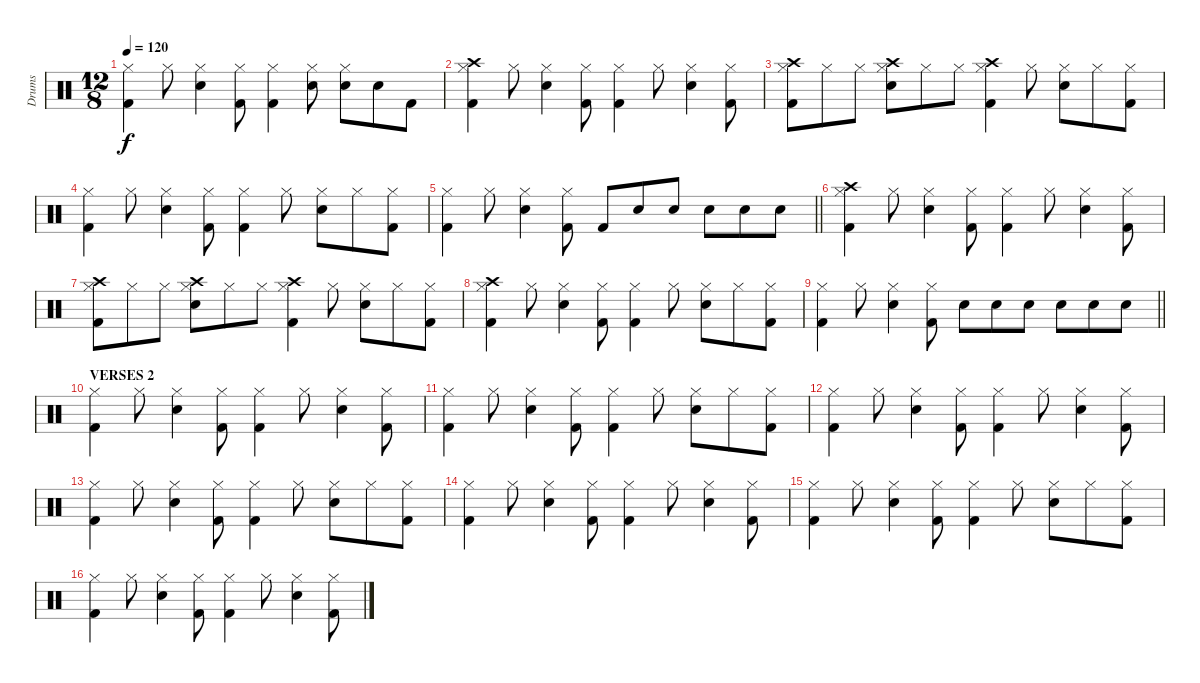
\track ("Drums" "Drums") {instrument percussion}
\staff {score}
\articulation defaults
\ts (12 8)
\tempo 120
\clef neutral
\ks c
("Hi-Hat (closed)" "Kick (hit) 2").4{dy f} "Hi-Hat (closed)".8 ("Hi-Hat (closed)" "Electric Snare (hit)").4 ("Hi-Hat (closed)" "Kick (hit) 2").8 ("Hi-Hat (closed)" "Kick (hit) 2").4 ("Hi-Hat (closed)" "Electric Snare (hit)").8 ("Hi-Hat (closed)" "Electric Snare (hit)").8 "Electric Snare (hit)".8 "Kick (hit) 2".8 |
("Crash high (hit)" "Hi-Hat (closed)" "Kick (hit) 2").4 "Hi-Hat (closed)".8 ("Hi-Hat (closed)" "Electric Snare (hit)").4 ("Hi-Hat (closed)" "Kick (hit) 2").8 ("Hi-Hat (closed)" "Kick (hit) 2").4 "Hi-Hat (closed)".8 ("Hi-Hat (closed)" "Electric Snare (hit)").4 ("Hi-Hat (closed)" "Kick (hit) 2").8 |
("Crash high (hit)" "Hi-Hat (closed)" "Kick (hit) 2").8 "Hi-Hat (closed)".8 "Hi-Hat (closed)".8 ("Crash high (hit)" "Hi-Hat (closed)" "Electric Snare (hit)").8 "Hi-Hat (closed)".8 "Hi-Hat (closed)".8 ("Crash high (hit)" "Hi-Hat (closed)" "Kick (hit) 2").4 "Hi-Hat (closed)".8 ("Hi-Hat (closed)" "Electric Snare (hit)").8 "Hi-Hat (closed)".8 ("Hi-Hat (closed)" "Kick (hit) 2").8 |
("Hi-Hat (closed)" "Kick (hit) 2").4 "Hi-Hat (closed)".8 ("Hi-Hat (closed)" "Electric Snare (hit)").4 ("Hi-Hat (closed)" "Kick (hit) 2").8 ("Hi-Hat (closed)" "Kick (hit) 2").4 "Hi-Hat (closed)".8 ("Hi-Hat (closed)" "Electric Snare (hit)").8 "Hi-Hat (closed)".8 ("Hi-Hat (closed)" "Kick (hit) 2").8 |
\barLineRight lightlight
("Hi-Hat (closed)" "Kick (hit) 2").4 "Hi-Hat (closed)".8 ("Hi-Hat (closed)" "Electric Snare (hit)").4 ("Hi-Hat (closed)" "Kick (hit) 2").8 "Kick (hit) 2".8 "Electric Snare (hit)".8 "Electric Snare (hit)".8 "Electric Snare (hit)".8 "Electric Snare (hit)".8 "Electric Snare (hit)".8 |
("Crash high (hit)" "Hi-Hat (closed)" "Kick (hit) 2").4 "Hi-Hat (closed)".8 ("Hi-Hat (closed)" "Electric Snare (hit)").4 ("Hi-Hat (closed)" "Kick (hit) 2").8 ("Hi-Hat (closed)" "Kick (hit) 2").4 "Hi-Hat (closed)".8 ("Hi-Hat (closed)" "Electric Snare (hit)").4 ("Hi-Hat (closed)" "Kick (hit) 2").8 |
("Crash high (hit)" "Hi-Hat (closed)" "Kick (hit) 2").8 "Hi-Hat (closed)".8 "Hi-Hat (closed)".8 ("Crash high (hit)" "Hi-Hat (closed)" "Electric Snare (hit)").8 "Hi-Hat (closed)".8 "Hi-Hat (closed)".8 ("Crash high (hit)" "Hi-Hat (closed)" "Kick (hit) 2").4 "Hi-Hat (closed)".8 ("Hi-Hat (closed)" "Electric Snare (hit)").8 "Hi-Hat (closed)".8 ("Hi-Hat (closed)" "Kick (hit) 2").8 |
("Crash high (hit)" "Hi-Hat (closed)" "Kick (hit) 2").4 "Hi-Hat (closed)".8 ("Hi-Hat (closed)" "Electric Snare (hit)").4 ("Hi-Hat (closed)" "Kick (hit) 2").8 ("Hi-Hat (closed)" "Kick (hit) 2").4 "Hi-Hat (closed)".8 ("Hi-Hat (closed)" "Electric Snare (hit)").8 "Hi-Hat (closed)".8 ("Hi-Hat (closed)" "Kick (hit) 2").8 |
\barLineRight lightlight
("Hi-Hat (closed)" "Kick (hit) 2").4 "Hi-Hat (closed)".8 ("Hi-Hat (closed)" "Electric Snare (hit)").4 ("Hi-Hat (closed)" "Kick (hit) 2").8 "Electric Snare (hit)".8 "Electric Snare (hit)".8 "Electric Snare (hit)".8 "Electric Snare (hit)".8 "Electric Snare (hit)".8 "Electric Snare (hit)".8 |
\section ("" "VERSES 2")
("Hi-Hat (closed)" "Kick (hit) 2").4 "Hi-Hat (closed)".8 ("Hi-Hat (closed)" "Electric Snare (hit)").4 ("Hi-Hat (closed)" "Kick (hit) 2").8 ("Hi-Hat (closed)" "Kick (hit) 2").4 "Hi-Hat (closed)".8 ("Hi-Hat (closed)" "Electric Snare (hit)").4 ("Hi-Hat (closed)" "Kick (hit) 2").8 |
("Hi-Hat (closed)" "Kick (hit) 2").4 "Hi-Hat (closed)".8 ("Hi-Hat (closed)" "Electric Snare (hit)").4 ("Hi-Hat (closed)" "Kick (hit) 2").8 ("Hi-Hat (closed)" "Kick (hit) 2").4 "Hi-Hat (closed)".8 ("Hi-Hat (closed)" "Electric Snare (hit)").8 "Hi-Hat (closed)".8 ("Hi-Hat (closed)" "Kick (hit) 2").8 |
("Hi-Hat (closed)" "Kick (hit) 2").4 "Hi-Hat (closed)".8 ("Hi-Hat (closed)" "Electric Snare (hit)").4 ("Hi-Hat (closed)" "Kick (hit) 2").8 ("Hi-Hat (closed)" "Kick (hit) 2").4 "Hi-Hat (closed)".8 ("Hi-Hat (closed)" "Electric Snare (hit)").4 ("Hi-Hat (closed)" "Kick (hit) 2").8 |
("Hi-Hat (closed)" "Kick (hit) 2").4 "Hi-Hat (closed)".8 ("Hi-Hat (closed)" "Electric Snare (hit)").4 ("Hi-Hat (closed)" "Kick (hit) 2").8 ("Hi-Hat (closed)" "Kick (hit) 2").4 "Hi-Hat (closed)".8 ("Hi-Hat (closed)" "Electric Snare (hit)").8 "Hi-Hat (closed)".8 ("Hi-Hat (closed)" "Kick (hit) 2").8 |
("Hi-Hat (closed)" "Kick (hit) 2").4 "Hi-Hat (closed)".8 ("Hi-Hat (closed)" "Electric Snare (hit)").4 ("Hi-Hat (closed)" "Kick (hit) 2").8 ("Hi-Hat (closed)" "Kick (hit) 2").4 "Hi-Hat (closed)".8 ("Hi-Hat (closed)" "Electric Snare (hit)").4 ("Hi-Hat (closed)" "Kick (hit) 2").8 |
("Hi-Hat (closed)" "Kick (hit) 2").4 "Hi-Hat (closed)".8 ("Hi-Hat (closed)" "Electric Snare (hit)").4 ("Hi-Hat (closed)" "Kick (hit) 2").8 ("Hi-Hat (closed)" "Kick (hit) 2").4 "Hi-Hat (closed)".8 ("Hi-Hat (closed)" "Electric Snare (hit)").8 "Hi-Hat (closed)".8 ("Hi-Hat (closed)" "Kick (hit) 2").8 |
("Hi-Hat (closed)" "Kick (hit) 2").4 "Hi-Hat (closed)".8 ("Hi-Hat (closed)" "Electric Snare (hit)").4 ("Hi-Hat (closed)" "Kick (hit) 2").8 ("Hi-Hat (closed)" "Kick (hit) 2").4 "Hi-Hat (closed)".8 ("Hi-Hat (closed)" "Electric Snare (hit)").4 ("Hi-Hat (closed)" "Kick (hit) 2").8
